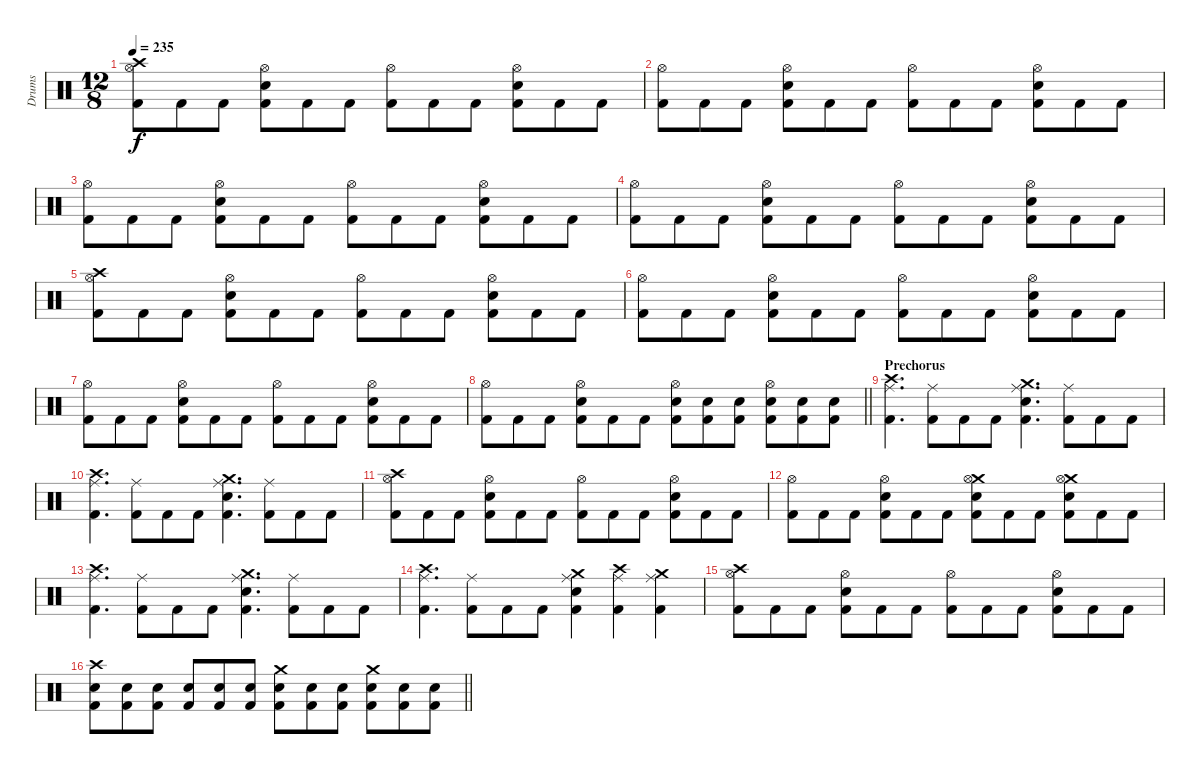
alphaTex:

\track ("Drums" "Drums") {instrument percussion}
\staff {score}
\articulation defaults
\ts (12 8)
\tempo 235
\clef neutral
\ks c
("Crash high (hit)" "Hi-Hat (open)" "Kick (hit) 2").8{dy f} "Kick (hit) 2".8 "Kick (hit) 2".8 ("Hi-Hat (open)" "Snare (hit) 2" "Kick (hit) 2").8 "Kick (hit) 2".8 "Kick (hit) 2".8 ("Hi-Hat (open)" "Kick (hit) 2").8 "Kick (hit) 2".8 "Kick (hit) 2".8 ("Hi-Hat (open)" "Snare (hit) 2" "Kick (hit) 2").8 "Kick (hit) 2".8 "Kick (hit) 2".8 |
("Hi-Hat (open)" "Kick (hit) 2").8 "Kick (hit) 2".8 "Kick (hit) 2".8 ("Hi-Hat (open)" "Snare (hit) 2" "Kick (hit) 2").8 "Kick (hit) 2".8 "Kick (hit) 2".8 ("Hi-Hat (open)" "Kick (hit) 2").8 "Kick (hit) 2".8 "Kick (hit) 2".8 ("Hi-Hat (open)" "Snare (hit) 2" "Kick (hit) 2").8 "Kick (hit) 2".8 "Kick (hit) 2".8 |
("Hi-Hat (open)" "Kick (hit) 2").8 "Kick (hit) 2".8 "Kick (hit) 2".8 ("Hi-Hat (open)" "Snare (hit) 2" "Kick (hit) 2").8 "Kick (hit) 2".8 "Kick (hit) 2".8 ("Hi-Hat (open)" "Kick (hit) 2").8 "Kick (hit) 2".8 "Kick (hit) 2".8 ("Hi-Hat (open)" "Snare (hit) 2" "Kick (hit) 2").8 "Kick (hit) 2".8 "Kick (hit) 2".8 |
("Hi-Hat (open)" "Kick (hit) 2").8 "Kick (hit) 2".8 "Kick (hit) 2".8 ("Hi-Hat (open)" "Snare (hit) 2" "Kick (hit) 2").8 "Kick (hit) 2".8 "Kick (hit) 2".8 ("Hi-Hat (open)" "Kick (hit) 2").8 "Kick (hit) 2".8 "Kick (hit) 2".8 ("Hi-Hat (open)" "Snare (hit) 2" "Kick (hit) 2").8 "Kick (hit) 2".8 "Kick (hit) 2".8 |
("Crash high (hit)" "Hi-Hat (open)" "Kick (hit) 2").8 "Kick (hit) 2".8 "Kick (hit) 2".8 ("Hi-Hat (open)" "Snare (hit) 2" "Kick (hit) 2").8 "Kick (hit) 2".8 "Kick (hit) 2".8 ("Hi-Hat (open)" "Kick (hit) 2").8 "Kick (hit) 2".8 "Kick (hit) 2".8 ("Hi-Hat (open)" "Snare (hit) 2" "Kick (hit) 2").8 "Kick (hit) 2".8 "Kick (hit) 2".8 |
("Hi-Hat (open)" "Kick (hit) 2").8 "Kick (hit) 2".8 "Kick (hit) 2".8 ("Hi-Hat (open)" "Snare (hit) 2" "Kick (hit) 2").8 "Kick (hit) 2".8 "Kick (hit) 2".8 ("Hi-Hat (open)" "Kick (hit) 2").8 "Kick (hit) 2".8 "Kick (hit) 2".8 ("Hi-Hat (open)" "Snare (hit) 2" "Kick (hit) 2").8 "Kick (hit) 2".8 "Kick (hit) 2".8 |
("Hi-Hat (open)" "Kick (hit) 2").8 "Kick (hit) 2".8 "Kick (hit) 2".8 ("Hi-Hat (open)" "Snare (hit) 2" "Kick (hit) 2").8 "Kick (hit) 2".8 "Kick (hit) 2".8 ("Hi-Hat (open)" "Kick (hit) 2").8 "Kick (hit) 2".8 "Kick (hit) 2".8 ("Hi-Hat (open)" "Snare (hit) 2" "Kick (hit) 2").8 "Kick (hit) 2".8 "Kick (hit) 2".8 |
\barLineRight lightlight
("Hi-Hat (open)" "Kick (hit) 2").8 "Kick (hit) 2".8 "Kick (hit) 2".8 ("Hi-Hat (open)" "Snare (hit) 2" "Kick (hit) 2").8 "Kick (hit) 2".8 "Kick (hit) 2".8 ("Hi-Hat (open)" "Snare (hit) 2" "Kick (hit) 2").8 ("Snare (hit) 2" "Kick (hit) 2").8 ("Snare (hit) 2" "Kick (hit) 2").8 ("Hi-Hat (open)" "Snare (hit) 2" "Kick (hit) 2").8 ("Snare (hit) 2" "Kick (hit) 2").8 ("Snare (hit) 2" "Kick (hit) 2").8 |
\section ("" "Prechorus")
("Crash high (hit)" "Ride (middle)" "Kick (hit) 2").4{d} ("Ride (middle)" "Kick (hit) 2").8 "Kick (hit) 2".8 "Kick (hit) 2".8 ("Crash medium (hit)" "Ride (middle)" "Snare (hit) 2" "Kick (hit) 2").4{d} ("Ride (middle)" "Kick (hit) 2").8 "Kick (hit) 2".8 "Kick (hit) 2".8 |
("Crash high (hit)" "Ride (middle)" "Kick (hit) 2").4{d} ("Ride (middle)" "Kick (hit) 2").8 "Kick (hit) 2".8 "Kick (hit) 2".8 ("Crash medium (hit)" "Ride (middle)" "Snare (hit) 2" "Kick (hit) 2").4{d} ("Ride (middle)" "Kick (hit) 2").8 "Kick (hit) 2".8 "Kick (hit) 2".8 |
("Crash high (hit)" "Hi-Hat (open)" "Kick (hit) 2").8 "Kick (hit) 2".8 "Kick (hit) 2".8 ("Hi-Hat (open)" "Snare (hit) 2" "Kick (hit) 2").8 "Kick (hit) 2".8 "Kick (hit) 2".8 ("Hi-Hat (open)" "Kick (hit) 2").8 "Kick (hit) 2".8 "Kick (hit) 2".8 ("Hi-Hat (open)" "Snare (hit) 2" "Kick (hit) 2").8 "Kick (hit) 2".8 "Kick (hit) 2".8 |
("Hi-Hat (open)" "Kick (hit) 2").8 "Kick (hit) 2".8 "Kick (hit) 2".8 ("Hi-Hat (open)" "Snare (hit) 2" "Kick (hit) 2").8 "Kick (hit) 2".8 "Kick (hit) 2".8 ("Crash medium (hit)" "Hi-Hat (open)" "Snare (hit) 2" "Kick (hit) 2").8 "Kick (hit) 2".8 "Kick (hit) 2".8 ("Crash medium (hit)" "Hi-Hat (open)" "Snare (hit) 2" "Kick (hit) 2").8 "Kick (hit) 2".8 "Kick (hit) 2".8 |
("Crash high (hit)" "Ride (middle)" "Kick (hit) 2").4{d} ("Ride (middle)" "Kick (hit) 2").8 "Kick (hit) 2".8 "Kick (hit) 2".8 ("Crash medium (hit)" "Ride (middle)" "Snare (hit) 2" "Kick (hit) 2").4{d} ("Ride (middle)" "Kick (hit) 2").8 "Kick (hit) 2".8 "Kick (hit) 2".8 |
("Crash high (hit)" "Ride (middle)" "Kick (hit) 2").4{d} ("Ride (middle)" "Kick (hit) 2").8 "Kick (hit) 2".8 "Kick (hit) 2".8 ("Crash medium (hit)" "Ride (middle)" "Snare (hit) 2" "Kick (hit) 2").4 ("Crash high (hit)" "Ride (middle)" "Kick (hit) 2").4 ("Crash medium (hit)" "Ride (middle)" "Kick (hit) 2").4 |
("Crash high (hit)" "Hi-Hat (open)" "Kick (hit) 2").8 "Kick (hit) 2".8 "Kick (hit) 2".8 ("Hi-Hat (open)" "Snare (hit) 2" "Kick (hit) 2").8 "Kick (hit) 2".8 "Kick (hit) 2".8 ("Hi-Hat (open)" "Kick (hit) 2").8 "Kick (hit) 2".8 "Kick (hit) 2".8 ("Hi-Hat (open)" "Snare (hit) 2" "Kick (hit) 2").8 "Kick (hit) 2".8 "Kick (hit) 2".8 |
\barLineRight lightlight
("Crash high (hit)" "Snare (hit) 2" "Kick (hit) 2").8 ("Snare (hit) 2" "Kick (hit) 2").8 ("Snare (hit) 2" "Kick (hit) 2").8 ("Snare (hit) 2" "Kick (hit) 2").8 ("Snare (hit) 2" "Kick (hit) 2").8 ("Snare (hit) 2" "Kick (hit) 2").8 ("Crash medium (hit)" "Snare (hit) 2" "Kick (hit) 2").8 ("Snare (hit) 2" "Kick (hit) 2").8 ("Snare (hit) 2" "Kick (hit) 2").8 ("Crash medium (hit)" "Snare (hit) 2" "Kick (hit) 2").8 ("Snare (hit) 2" "Kick (hit) 2").8 ("Snare (hit) 2" "Kick (hit) 2").8
